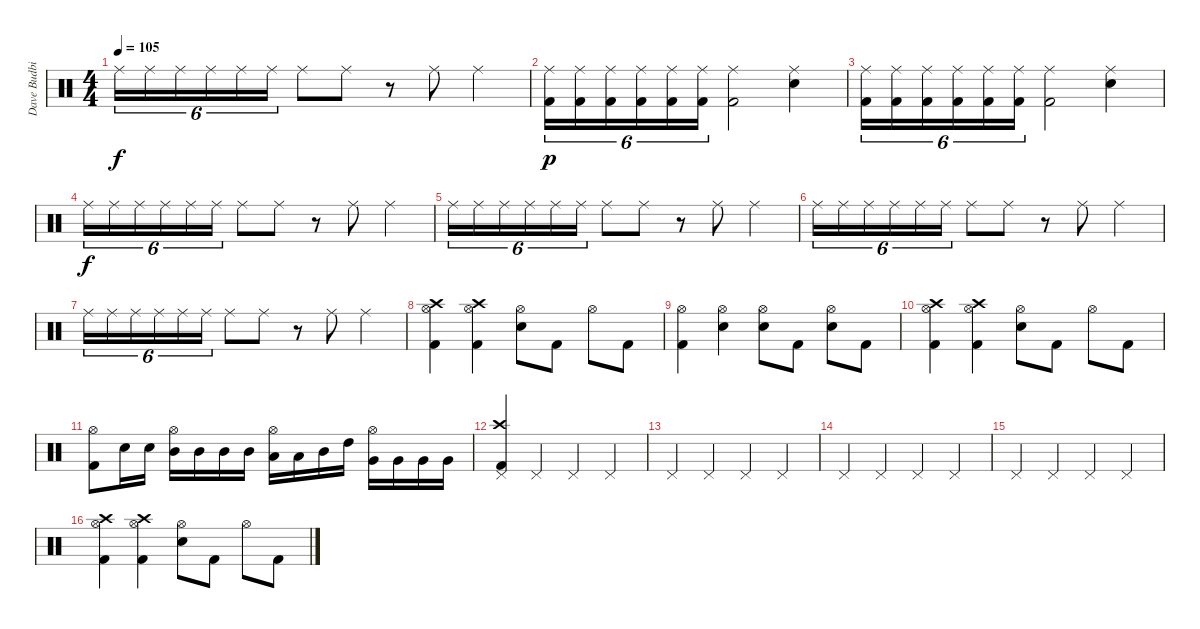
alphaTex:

\track ("Dave Budbill" "Dave Budbi") {instrument percussion}
\staff {score}
\articulation defaults
\ts (4 4)
\tempo 105
\clef neutral
\ks c "Ride (middle)".16{tu (6 4) dy f} "Ride (middle)".16{tu (6 4)} "Ride (middle)".16{tu (6 4)} "Ride (middle)".16{tu (6 4)} "Ride (middle)".16{tu (6 4)} "Ride (middle)".16{tu (6 4)} "Ride (middle)".8 "Ride (middle)".8
r.8 "Ride (middle)".8 "Ride (middle)".4 |
("Ride (middle)" "Kick (hit) 2").16{tu (6 4) dy p} ("Ride (middle)" "Kick (hit) 2").16{tu (6 4)} ("Ride (middle)" "Kick (hit) 2").16{tu (6 4)} ("Ride (middle)" "Kick (hit) 2").16{tu (6 4)} ("Ride (middle)" "Kick (hit) 2").16{tu (6 4)} ("Ride (middle)" "Kick (hit) 2").16{tu (6 4)} ("Ride (middle)" "Kick (hit) 2").2 ("Ride (middle)" "Snare (hit) 2").4 |
("Ride (middle)" "Kick (hit) 2").16{tu (6 4)} ("Ride (middle)" "Kick (hit) 2").16{tu (6 4)} ("Ride (middle)" "Kick (hit) 2").16{tu (6 4)} ("Ride (middle)" "Kick (hit) 2").16{tu (6 4)} ("Ride (middle)" "Kick (hit) 2").16{tu (6 4)} ("Ride (middle)" "Kick (hit) 2").16{tu (6 4)} ("Ride (middle)" "Kick (hit) 2").2 ("Ride (middle)" "Snare (hit) 2").4 |
"Ride (middle)".16{tu (6 4) dy f} "Ride (middle)".16{tu (6 4)} "Ride (middle)".16{tu (6 4)} "Ride (middle)".16{tu (6 4)} "Ride (middle)".16{tu (6 4)} "Ride (middle)".16{tu (6 4)} "Ride (middle)".8 "Ride (middle)".8 r.8 "Ride (middle)".8 "Ride (middle)".4 |
"Ride (middle)".16{tu (6 4)} "Ride (middle)".16{tu (6 4)} "Ride (middle)".16{tu (6 4)} "Ride (middle)".16{tu (6 4)} "Ride (middle)".16{tu (6 4)} "Ride (middle)".16{tu (6 4)} "Ride (middle)".8 "Ride (middle)".8 r.8 "Ride (middle)".8 "Ride (middle)".4 |
"Ride (middle)".16{tu (6 4)} "Ride (middle)".16{tu (6 4)} "Ride (middle)".16{tu (6 4)} "Ride (middle)".16{tu (6 4)} "Ride (middle)".16{tu (6 4)} "Ride (middle)".16{tu (6 4)} "Ride (middle)".8 "Ride (middle)".8 r.8 "Ride (middle)".8 "Ride (middle)".4 |
"Ride (middle)".16{tu (6 4)} "Ride (middle)".16{tu (6 4)} "Ride (middle)".16{tu (6 4)} "Ride (middle)".16{tu (6 4)} "Ride (middle)".16{tu (6 4)} "Ride (middle)".16{tu (6 4)} "Ride (middle)".8 "Ride (middle)".8 r.8 "Ride (middle)".8 "Ride (middle)".4 |
("Hi-Hat (open)" "Crash high (hit)" "Kick (hit) 2").4 ("Hi-Hat (open)" "Crash high (hit)" "Kick (hit) 2").4 ("Hi-Hat (open)" "Electric Snare (hit)").8 "Kick (hit) 2".8 "Hi-Hat (open)".8 "Kick (hit) 2".8 |
("Hi-Hat (open)" "Kick (hit) 2").4 ("Hi-Hat (open)" "Electric Snare (hit)").4 ("Hi-Hat (open)" "Electric Snare (hit)").8 "Kick (hit) 2".8 ("Hi-Hat (open)" "Electric Snare (hit)").8 "Kick (hit) 2".8 |
("Hi-Hat (open)" "Crash high (hit)" "Kick (hit) 2").4 ("Hi-Hat (open)" "Crash high (hit)" "Kick (hit) 2").4 ("Hi-Hat (open)" "Electric Snare (hit)").8 "Kick (hit) 2".8 "Hi-Hat (open)".8 "Kick (hit) 2".8 |
("Hi-Hat (open)" "Kick (hit) 2").8 "Electric Snare (hit)".16 "Electric Snare (hit)".16 ("Hi-Hat (open)" "Mid Tom (hit)").16 "Mid Tom (hit)".16 "Mid Tom (hit)".16 "Mid Tom (hit)".16 ("Hi-Hat (open)" "Low Tom (hit)").16 "Low Tom (hit)".16 "Mid Tom (hit)".16 "High Tom (hit)".16 ("Hi-Hat (open)" "Very Low Tom (hit)").16 "Very Low Tom (hit)".16 "Very Low Tom (hit)".16 "Very Low Tom (hit)".16 |
("Crash high (hit)" "Kick (hit) 2" "Pedal Hi-Hat (hit)").4 "Pedal Hi-Hat (hit)".4 "Pedal Hi-Hat (hit)".4 "Pedal Hi-Hat (hit)".4 |
"Pedal Hi-Hat (hit)".4 "Pedal Hi-Hat (hit)".4 "Pedal Hi-Hat (hit)".4 "Pedal Hi-Hat (hit)".4 |
"Pedal Hi-Hat (hit)".4 "Pedal Hi-Hat (hit)".4 "Pedal Hi-Hat (hit)".4 "Pedal Hi-Hat (hit)".4 |
"Pedal Hi-Hat (hit)".4 "Pedal Hi-Hat (hit)".4 "Pedal Hi-Hat (hit)".4 "Pedal Hi-Hat (hit)".4 |
("Hi-Hat (open)" "Crash high (hit)" "Kick (hit) 2").4 ("Hi-Hat (open)" "Crash high (hit)" "Kick (hit) 2").4 ("Hi-Hat (open)" "Electric Snare (hit)").8 "Kick (hit) 2".8 "Hi-Hat (open)".8 "Kick (hit) 2".8
